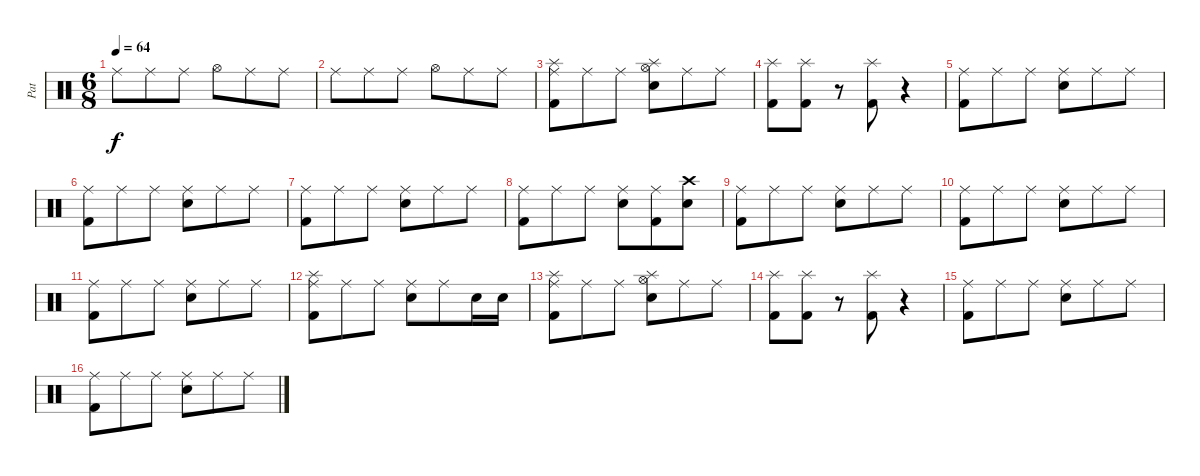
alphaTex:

\track ("Pat" "Pat") {instrument percussion}
\staff {score}
\articulation defaults
\ts (6 8)
\tempo 64
\clef neutral
\ks c "Ride (middle)".8{dy f} "Ride (middle)".8 "Ride (middle)".8 "Hi-Hat (open)".8 "Ride (middle)".8 "Ride (middle)".8
|
"Ride (middle)".8 "Ride (middle)".8 "Ride (middle)".8 "Hi-Hat (open)".8 "Ride (middle)".8 "Ride (middle)".8 |
("Splash (hit)" "Kick (hit) 2" "Ride (middle)").8 "Ride (middle)".8 "Ride (middle)".8 ("Splash (hit)" "Electric Snare (hit)" "Hi-Hat (open)").8 "Ride (middle)".8 "Ride (middle)".8 |
("Splash (hit)" "Kick (hit) 2").8 ("Splash (hit)" "Kick (hit) 2").8 r.8 ("Kick (hit) 2" "Splash (hit)").8 r.4 |
("Kick (hit) 2" "Ride (middle)").8 "Ride (middle)".8 "Ride (middle)".8 ("Electric Snare (hit)" "Ride (middle)").8 "Ride (middle)".8 "Ride (middle)".8 |
("Kick (hit) 2" "Ride (middle)").8 "Ride (middle)".8 "Ride (middle)".8 ("Snare (hit) 2" "Ride (middle)").8 "Ride (middle)".8 "Ride (middle)".8 |
("Ride (middle)" "Kick (hit) 2").8 "Ride (middle)".8 "Ride (middle)".8 ("Ride (middle)" "Snare (hit) 2").8 "Ride (middle)".8 "Ride (middle)".8 |
("Kick (hit) 2" "Ride (middle)").8 "Ride (middle)".8 "Ride (middle)".8 ("Ride (middle)" "Electric Snare (hit)").8 ("Ride (middle)" "Kick (hit) 2").8 ("Crash high (hit)" "Electric Snare (hit)").8 |
("Kick (hit) 2" "Ride (middle)").8 "Ride (middle)".8 "Ride (middle)".8 ("Electric Snare (hit)" "Ride (middle)").8 "Ride (middle)".8 "Ride (middle)".8 |
("Kick (hit) 2" "Ride (middle)").8 "Ride (middle)".8 "Ride (middle)".8 ("Snare (hit) 2" "Ride (middle)").8 "Ride (middle)".8 "Ride (middle)".8 |
("Ride (middle)" "Kick (hit) 2").8 "Ride (middle)".8 "Ride (middle)".8 ("Ride (middle)" "Snare (hit) 2").8 "Ride (middle)".8 "Ride (middle)".8 |
("Kick (hit) 2" "Ride (middle)" "Splash (hit)").8 "Ride (middle)".8 "Ride (middle)".8 ("Ride (middle)" "Electric Snare (hit)").8 "Ride (middle)".8 "Electric Snare (hit)".16 "Electric Snare (hit)".16 |
("Splash (hit)" "Kick (hit) 2" "Ride (middle)").8 "Ride (middle)".8 "Ride (middle)".8 ("Splash (hit)" "Electric Snare (hit)" "Hi-Hat (open)").8 "Ride (middle)".8 "Ride (middle)".8 |
("Splash (hit)" "Kick (hit) 2").8 ("Splash (hit)" "Kick (hit) 2").8 r.8 ("Kick (hit) 2" "Splash (hit)").8 r.4 |
("Kick (hit) 2" "Ride (middle)").8 "Ride (middle)".8 "Ride (middle)".8 ("Electric Snare (hit)" "Ride (middle)").8 "Ride (middle)".8 "Ride (middle)".8 |
("Kick (hit) 2" "Ride (middle)").8 "Ride (middle)".8 "Ride (middle)".8 ("Snare (hit) 2" "Ride (middle)").8 "Ride (middle)".8 "Ride (middle)".8
